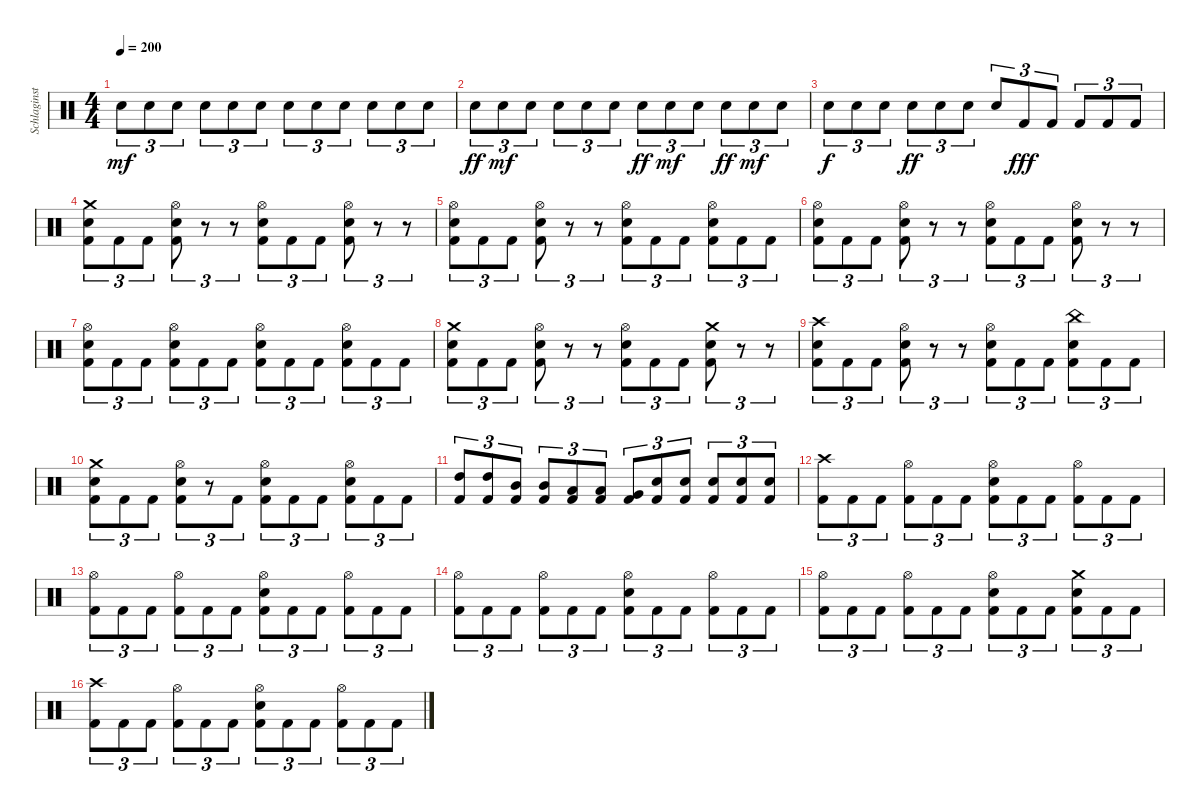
\track ("Schlaginstrumente - Auswahl" "Schlaginst") {instrument percussion}
\staff {score}
\articulation defaults
\ts (4 4)
\tempo 200
\clef neutral
\ks c "Snare (hit) 2".8{tu (3 2) dy mf} "Snare (hit) 2".8{tu (3 2)} "Snare (hit) 2".8{tu (3 2)} "Snare (hit) 2".8{tu (3 2)} "Snare (hit) 2".8{tu (3 2)} "Snare (hit) 2".8{tu (3 2)} "Snare (hit) 2".8{tu (3 2)} "Snare (hit) 2".8{tu (3 2)} "Snare (hit) 2".8{tu (3 2)} "Snare (hit) 2".8{tu (3 2)} "Snare (hit) 2".8{tu (3 2)} "Snare (hit) 2".8{tu (3 2)}
|
"Snare (hit) 2".8{tu (3 2) dy ff} "Snare (hit) 2".8{tu (3 2) dy mf} "Snare (hit) 2".8{tu (3 2)} "Snare (hit) 2".8{tu (3 2)} "Snare (hit) 2".8{tu (3 2)} "Snare (hit) 2".8{tu (3 2)} "Snare (hit) 2".8{tu (3 2) dy ff} "Snare (hit) 2".8{tu (3 2) dy mf} "Snare (hit) 2".8{tu (3 2)} "Snare (hit) 2".8{tu (3 2) dy ff} "Snare (hit) 2".8{tu (3 2) dy mf} "Snare (hit) 2".8{tu (3 2)} |
"Snare (hit) 2".8{tu (3 2) dy f} "Snare (hit) 2".8{tu (3 2)} "Snare (hit) 2".8{tu (3 2)} "Snare (hit) 2".8{tu (3 2) dy ff} "Snare (hit) 2".8{tu (3 2)} "Snare (hit) 2".8{tu (3 2)} "Snare (hit) 2".8{tu (3 2)} "Kick (hit) 2".8{tu (3 2) dy fff} "Kick (hit) 2".8{tu (3 2)} "Kick (hit) 2".8{tu (3 2)} "Kick (hit) 2".8{tu (3 2)} "Kick (hit) 2".8{tu (3 2)} |
("Crash medium (hit)" "Snare (hit) 2" "Kick (hit) 2").8{tu (3 2)} "Kick (hit) 2".8{tu (3 2)} "Kick (hit) 2".8{tu (3 2)} ("Hi-Hat (open)" "Snare (hit) 2" "Kick (hit) 2").8{tu (3 2)} r.8{tu (3 2)} r.8{tu (3 2)} ("Hi-Hat (open)" "Snare (hit) 2" "Kick (hit) 2").8{tu (3 2)} "Kick (hit) 2".8{tu (3 2)} "Kick (hit) 2".8{tu (3 2)} ("Hi-Hat (open)" "Snare (hit) 2" "Kick (hit) 2").8{tu (3 2)} r.8{tu (3 2)} r.8{tu (3 2)} |
("Hi-Hat (open)" "Snare (hit) 2" "Kick (hit) 2").8{tu (3 2)} "Kick (hit) 2".8{tu (3 2)} "Kick (hit) 2".8{tu (3 2)} ("Hi-Hat (open)" "Snare (hit) 2" "Kick (hit) 2").8{tu (3 2)} r.8{tu (3 2)} r.8{tu (3 2)} ("Hi-Hat (open)" "Snare (hit) 2" "Kick (hit) 2").8{tu (3 2)} "Kick (hit) 2".8{tu (3 2)} "Kick (hit) 2".8{tu (3 2)} ("Hi-Hat (open)" "Snare (hit) 2" "Kick (hit) 2").8{tu (3 2)} "Kick (hit) 2".8{tu (3 2)} "Kick (hit) 2".8{tu (3 2)} |
("Hi-Hat (open)" "Snare (hit) 2" "Kick (hit) 2").8{tu (3 2)} "Kick (hit) 2".8{tu (3 2)} "Kick (hit) 2".8{tu (3 2)} ("Hi-Hat (open)" "Snare (hit) 2" "Kick (hit) 2").8{tu (3 2)} r.8{tu (3 2)} r.8{tu (3 2)} ("Hi-Hat (open)" "Snare (hit) 2" "Kick (hit) 2").8{tu (3 2)} "Kick (hit) 2".8{tu (3 2)} "Kick (hit) 2".8{tu (3 2)} ("Hi-Hat (open)" "Snare (hit) 2" "Kick (hit) 2").8{tu (3 2)} r.8{tu (3 2)} r.8{tu (3 2)} |
("Hi-Hat (open)" "Snare (hit) 2" "Kick (hit) 2").8{tu (3 2)} "Kick (hit) 2".8{tu (3 2)} "Kick (hit) 2".8{tu (3 2)} ("Hi-Hat (open)" "Snare (hit) 2" "Kick (hit) 2").8{tu (3 2)} "Kick (hit) 2".8{tu (3 2)} "Kick (hit) 2".8{tu (3 2)} ("Hi-Hat (open)" "Snare (hit) 2" "Kick (hit) 2").8{tu (3 2)} "Kick (hit) 2".8{tu (3 2)} "Kick (hit) 2".8{tu (3 2)} ("Hi-Hat (open)" "Snare (hit) 2" "Kick (hit) 2").8{tu (3 2)} "Kick (hit) 2".8{tu (3 2)} "Kick (hit) 2".8{tu (3 2)} |
("Crash medium (hit)" "Snare (hit) 2" "Kick (hit) 2").8{tu (3 2)} "Kick (hit) 2".8{tu (3 2)} "Kick (hit) 2".8{tu (3 2)} ("Hi-Hat (open)" "Snare (hit) 2" "Kick (hit) 2").8{tu (3 2)} r.8{tu (3 2)} r.8{tu (3 2)} ("Hi-Hat (open)" "Snare (hit) 2" "Kick (hit) 2").8{tu (3 2)} "Kick (hit) 2".8{tu (3 2)} "Kick (hit) 2".8{tu (3 2)} ("Crash medium (hit)" "Snare (hit) 2" "Kick (hit) 2").8{tu (3 2)} r.8{tu (3 2)} r.8{tu (3 2)} |
("Crash high (hit)" "Snare (hit) 2" "Kick (hit) 2").8{tu (3 2)} "Kick (hit) 2".8{tu (3 2)} "Kick (hit) 2".8{tu (3 2)} ("Hi-Hat (open)" "Snare (hit) 2" "Kick (hit) 2").8{tu (3 2)} r.8{tu (3 2)} r.8{tu (3 2)} ("Hi-Hat (open)" "Snare (hit) 2" "Kick (hit) 2").8{tu (3 2)} "Kick (hit) 2".8{tu (3 2)} "Kick (hit) 2".8{tu (3 2)} ("China (hit)" "Snare (hit) 2" "Kick (hit) 2").8{tu (3 2)} "Kick (hit) 2".8{tu (3 2)} "Kick (hit) 2".8{tu (3 2)} |
("Crash medium (hit)" "Snare (hit) 2" "Kick (hit) 2").8{tu (3 2)} "Kick (hit) 2".8{tu (3 2)} "Kick (hit) 2".8{tu (3 2)} ("Hi-Hat (open)" "Snare (hit) 2" "Kick (hit) 2").8{tu (3 2)} r.8{tu (3 2)} "Kick (hit) 2".8{tu (3 2)} ("Hi-Hat (open)" "Snare (hit) 2" "Kick (hit) 2").8{tu (3 2)} "Kick (hit) 2".8{tu (3 2)} "Kick (hit) 2".8{tu (3 2)} ("Hi-Hat (open)" "Snare (hit) 2" "Kick (hit) 2").8{tu (3 2)} "Kick (hit) 2".8{tu (3 2)} "Kick (hit) 2".8{tu (3 2)} |
("High Tom (hit)" "Kick (hit) 2").8{tu (3 2)} ("High Tom (hit)" "Kick (hit) 2").8{tu (3 2)} ("Mid Tom (hit)" "Kick (hit) 2").8{tu (3 2)} ("Mid Tom (hit)" "Kick (hit) 2").8{tu (3 2)} ("Low Tom (hit)" "Kick (hit) 2").8{tu (3 2)} ("Low Tom (hit)" "Kick (hit) 2").8{tu (3 2)} ("Very Low Tom (hit)" "Kick (hit) 2").8{tu (3 2)} ("Snare (hit) 2" "Kick (hit) 2").8{tu (3 2)} ("Snare (hit) 2" "Kick (hit) 2").8{tu (3 2)} ("Snare (hit) 2" "Kick (hit) 2").8{tu (3 2)} ("Snare (hit) 2" "Kick (hit) 2").8{tu (3 2)} ("Snare (hit) 2" "Kick (hit) 2").8{tu (3 2)} |
("Crash high (hit)" "Kick (hit) 2").8{tu (3 2)} "Kick (hit) 2".8{tu (3 2)} "Kick (hit) 2".8{tu (3 2)} ("Hi-Hat (open)" "Kick (hit) 2").8{tu (3 2)} "Kick (hit) 2".8{tu (3 2)} "Kick (hit) 2".8{tu (3 2)} ("Hi-Hat (open)" "Snare (hit) 2" "Kick (hit) 2").8{tu (3 2)} "Kick (hit) 2".8{tu (3 2)} "Kick (hit) 2".8{tu (3 2)} ("Hi-Hat (open)" "Kick (hit) 2").8{tu (3 2)} "Kick (hit) 2".8{tu (3 2)} "Kick (hit) 2".8{tu (3 2)} |
("Hi-Hat (open)" "Kick (hit) 2").8{tu (3 2)} "Kick (hit) 2".8{tu (3 2)} "Kick (hit) 2".8{tu (3 2)} ("Hi-Hat (open)" "Kick (hit) 2").8{tu (3 2)} "Kick (hit) 2".8{tu (3 2)} "Kick (hit) 2".8{tu (3 2)} ("Hi-Hat (open)" "Snare (hit) 2" "Kick (hit) 2").8{tu (3 2)} "Kick (hit) 2".8{tu (3 2)} "Kick (hit) 2".8{tu (3 2)} ("Hi-Hat (open)" "Kick (hit) 2").8{tu (3 2)} "Kick (hit) 2".8{tu (3 2)} "Kick (hit) 2".8{tu (3 2)} |
("Hi-Hat (open)" "Kick (hit) 2").8{tu (3 2)} "Kick (hit) 2".8{tu (3 2)} "Kick (hit) 2".8{tu (3 2)} ("Hi-Hat (open)" "Kick (hit) 2").8{tu (3 2)} "Kick (hit) 2".8{tu (3 2)} "Kick (hit) 2".8{tu (3 2)} ("Hi-Hat (open)" "Snare (hit) 2" "Kick (hit) 2").8{tu (3 2)} "Kick (hit) 2".8{tu (3 2)} "Kick (hit) 2".8{tu (3 2)} ("Hi-Hat (open)" "Kick (hit) 2").8{tu (3 2)} "Kick (hit) 2".8{tu (3 2)} "Kick (hit) 2".8{tu (3 2)} |
("Hi-Hat (open)" "Kick (hit) 2").8{tu (3 2)} "Kick (hit) 2".8{tu (3 2)} "Kick (hit) 2".8{tu (3 2)} ("Hi-Hat (open)" "Kick (hit) 2").8{tu (3 2)} "Kick (hit) 2".8{tu (3 2)} "Kick (hit) 2".8{tu (3 2)} ("Hi-Hat (open)" "Snare (hit) 2" "Kick (hit) 2").8{tu (3 2)} "Kick (hit) 2".8{tu (3 2)} "Kick (hit) 2".8{tu (3 2)} ("Crash medium (hit)" "Snare (hit) 2" "Kick (hit) 2").8{tu (3 2)} "Kick (hit) 2".8{tu (3 2)} "Kick (hit) 2".8{tu (3 2)} |
("Crash high (hit)" "Kick (hit) 2").8{tu (3 2)} "Kick (hit) 2".8{tu (3 2)} "Kick (hit) 2".8{tu (3 2)} ("Hi-Hat (open)" "Kick (hit) 2").8{tu (3 2)} "Kick (hit) 2".8{tu (3 2)} "Kick (hit) 2".8{tu (3 2)} ("Hi-Hat (open)" "Snare (hit) 2" "Kick (hit) 2").8{tu (3 2)} "Kick (hit) 2".8{tu (3 2)} "Kick (hit) 2".8{tu (3 2)} ("Hi-Hat (open)" "Kick (hit) 2").8{tu (3 2)} "Kick (hit) 2".8{tu (3 2)} "Kick (hit) 2".8{tu (3 2)}
